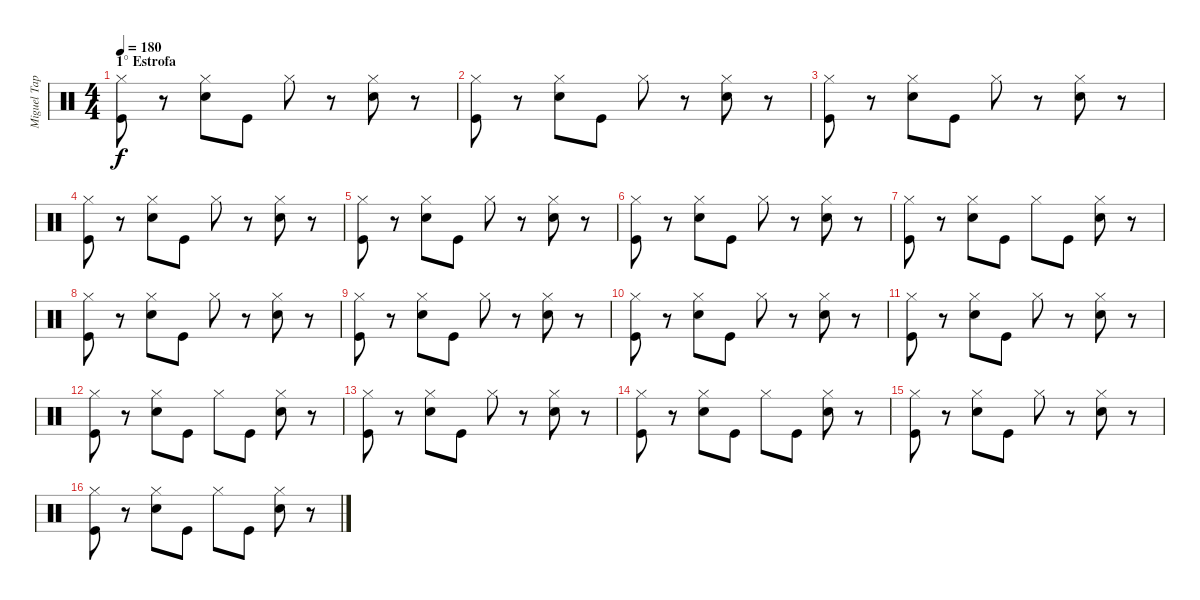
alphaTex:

\track ("Miguel Tapia (Batería)" "Miguel Tap") {instrument percussion}
\staff {score}
\articulation defaults
\ts (4 4)
\section ("" "1° Estrofa")
\tempo 180
\clef neutral
\ks c
("Hi-Hat (closed)" "Kick (hit)").8{dy f} r.8 ("Hi-Hat (closed)" "Snare (hit) 2").8 "Kick (hit)".8 "Hi-Hat (closed)".8 r.8 ("Hi-Hat (closed)" "Snare (hit) 2").8 r.8 |
("Hi-Hat (closed)" "Kick (hit)").8 r.8 ("Hi-Hat (closed)" "Snare (hit) 2").8 "Kick (hit)".8 "Hi-Hat (closed)".8 r.8 ("Hi-Hat (closed)" "Snare (hit) 2").8 r.8 |
("Hi-Hat (closed)" "Kick (hit)").8 r.8 ("Hi-Hat (closed)" "Snare (hit) 2").8 "Kick (hit)".8 "Hi-Hat (closed)".8 r.8 ("Hi-Hat (closed)" "Snare (hit) 2").8 r.8 |
("Hi-Hat (closed)" "Kick (hit)").8 r.8 ("Hi-Hat (closed)" "Snare (hit) 2").8 "Kick (hit)".8 "Hi-Hat (closed)".8 r.8 ("Hi-Hat (closed)" "Snare (hit) 2").8 r.8 |
("Hi-Hat (closed)" "Kick (hit)").8 r.8 ("Hi-Hat (closed)" "Snare (hit) 2").8 "Kick (hit)".8 "Hi-Hat (closed)".8 r.8 ("Hi-Hat (closed)" "Snare (hit) 2").8 r.8 |
("Hi-Hat (closed)" "Kick (hit)").8 r.8 ("Hi-Hat (closed)" "Snare (hit) 2").8 "Kick (hit)".8 "Hi-Hat (closed)".8 r.8 ("Hi-Hat (closed)" "Snare (hit) 2").8 r.8 |
("Hi-Hat (closed)" "Kick (hit)").8 r.8 ("Hi-Hat (closed)" "Snare (hit) 2").8 "Kick (hit)".8 "Hi-Hat (closed)".8 "Kick (hit)".8 ("Hi-Hat (closed)" "Snare (hit) 2").8 r.8 |
("Hi-Hat (closed)" "Kick (hit)").8 r.8 ("Hi-Hat (closed)" "Snare (hit) 2").8 "Kick (hit)".8 "Hi-Hat (closed)".8 r.8 ("Hi-Hat (closed)" "Snare (hit) 2").8 r.8 |
("Hi-Hat (closed)" "Kick (hit)").8 r.8 ("Hi-Hat (closed)" "Snare (hit) 2").8 "Kick (hit)".8 "Hi-Hat (closed)".8 r.8 ("Hi-Hat (closed)" "Snare (hit) 2").8 r.8 |
("Hi-Hat (closed)" "Kick (hit)").8 r.8 ("Hi-Hat (closed)" "Snare (hit) 2").8 "Kick (hit)".8 "Hi-Hat (closed)".8 r.8 ("Hi-Hat (closed)" "Snare (hit) 2").8 r.8 |
("Hi-Hat (closed)" "Kick (hit)").8 r.8 ("Hi-Hat (closed)" "Snare (hit) 2").8 "Kick (hit)".8 "Hi-Hat (closed)".8 r.8 ("Hi-Hat (closed)" "Snare (hit) 2").8 r.8 |
("Hi-Hat (closed)" "Kick (hit)").8 r.8 ("Hi-Hat (closed)" "Snare (hit) 2").8 "Kick (hit)".8 "Hi-Hat (closed)".8 "Kick (hit)".8 ("Hi-Hat (closed)" "Snare (hit) 2").8 r.8 |
("Hi-Hat (closed)" "Kick (hit)").8 r.8 ("Hi-Hat (closed)" "Snare (hit) 2").8 "Kick (hit)".8 "Hi-Hat (closed)".8 r.8 ("Hi-Hat (closed)" "Snare (hit) 2").8 r.8 |
("Hi-Hat (closed)" "Kick (hit)").8 r.8 ("Hi-Hat (closed)" "Snare (hit) 2").8 "Kick (hit)".8 "Hi-Hat (closed)".8 "Kick (hit)".8 ("Hi-Hat (closed)" "Snare (hit) 2").8 r.8 |
("Hi-Hat (closed)" "Kick (hit)").8 r.8 ("Hi-Hat (closed)" "Snare (hit) 2").8 "Kick (hit)".8 "Hi-Hat (closed)".8 r.8 ("Hi-Hat (closed)" "Snare (hit) 2").8 r.8 |
("Hi-Hat (closed)" "Kick (hit)").8 r.8 ("Hi-Hat (closed)" "Snare (hit) 2").8 "Kick (hit)".8 "Hi-Hat (closed)".8 "Kick (hit)".8 ("Hi-Hat (closed)" "Snare (hit) 2").8 r.8
